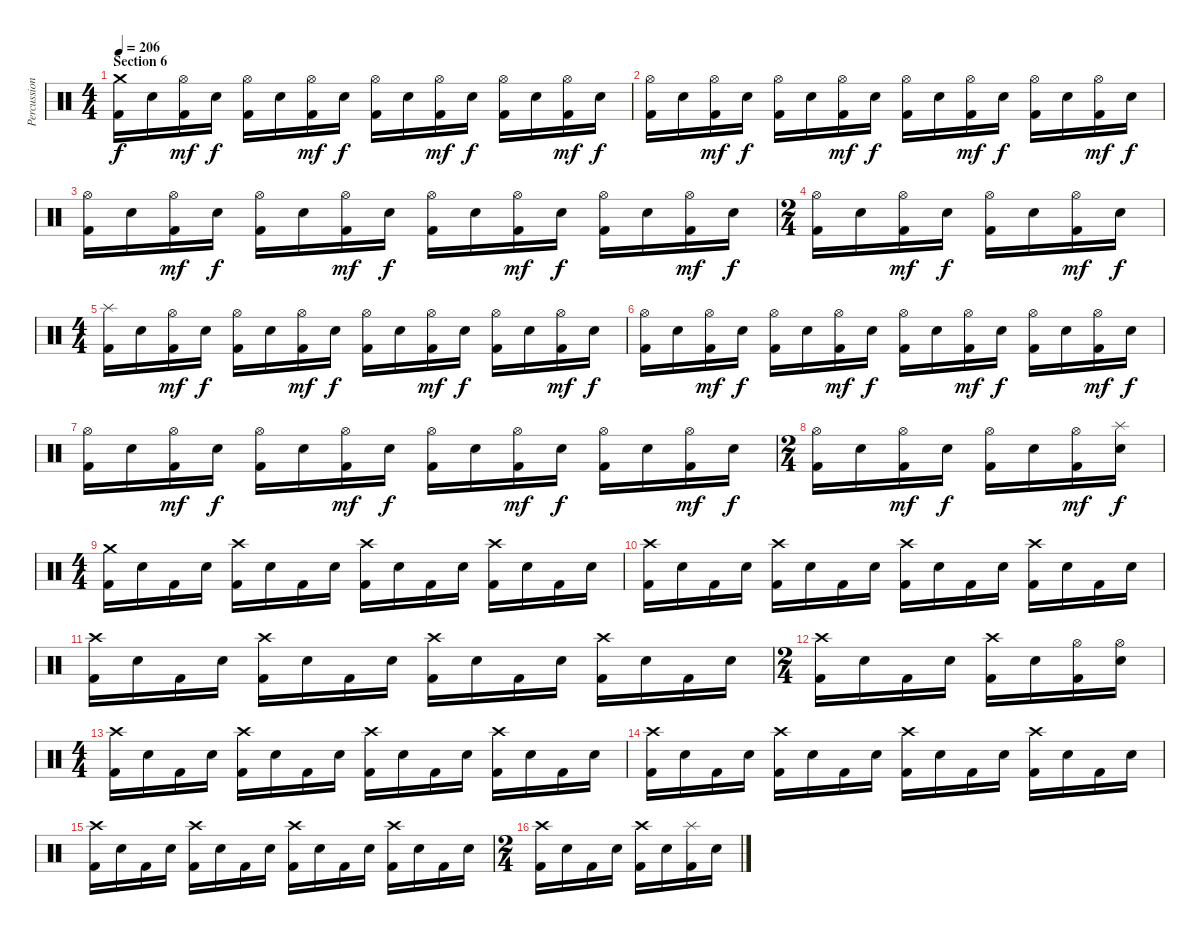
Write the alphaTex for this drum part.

\track ("Percussion" "Percussion") {instrument percussion}
\staff {score}
\articulation defaults
\ts (4 4)
\section ("" "Section 6")
\tempo 206
\clef neutral
\ks c
("Crash medium (hit)" "Kick (hit) 2").16{dy f} "Electric Snare (hit)".16 ("Hi-Hat (open)" "Kick (hit) 2").16{dy mf} "Electric Snare (hit)".16{dy f} ("Hi-Hat (open)" "Kick (hit) 2").16 "Electric Snare (hit)".16 ("Hi-Hat (open)" "Kick (hit) 2").16{dy mf} "Electric Snare (hit)".16{dy f} ("Hi-Hat (open)" "Kick (hit) 2").16 "Electric Snare (hit)".16 ("Hi-Hat (open)" "Kick (hit) 2").16{dy mf} "Electric Snare (hit)".16{dy f} ("Hi-Hat (open)" "Kick (hit) 2").16 "Electric Snare (hit)".16 ("Hi-Hat (open)" "Kick (hit) 2").16{dy mf} "Electric Snare (hit)".16{dy f} |
("Hi-Hat (open)" "Kick (hit) 2").16 "Electric Snare (hit)".16 ("Hi-Hat (open)" "Kick (hit) 2").16{dy mf} "Electric Snare (hit)".16{dy f} ("Hi-Hat (open)" "Kick (hit) 2").16 "Electric Snare (hit)".16 ("Hi-Hat (open)" "Kick (hit) 2").16{dy mf} "Electric Snare (hit)".16{dy f} ("Hi-Hat (open)" "Kick (hit) 2").16 "Electric Snare (hit)".16 ("Hi-Hat (open)" "Kick (hit) 2").16{dy mf} "Electric Snare (hit)".16{dy f} ("Hi-Hat (open)" "Kick (hit) 2").16 "Electric Snare (hit)".16 ("Hi-Hat (open)" "Kick (hit) 2").16{dy mf} "Electric Snare (hit)".16{dy f} |
("Hi-Hat (open)" "Kick (hit) 2").16 "Electric Snare (hit)".16 ("Hi-Hat (open)" "Kick (hit) 2").16{dy mf} "Electric Snare (hit)".16{dy f} ("Hi-Hat (open)" "Kick (hit) 2").16 "Electric Snare (hit)".16 ("Hi-Hat (open)" "Kick (hit) 2").16{dy mf} "Electric Snare (hit)".16{dy f} ("Hi-Hat (open)" "Kick (hit) 2").16 "Electric Snare (hit)".16 ("Hi-Hat (open)" "Kick (hit) 2").16{dy mf} "Electric Snare (hit)".16{dy f} ("Hi-Hat (open)" "Kick (hit) 2").16 "Electric Snare (hit)".16 ("Hi-Hat (open)" "Kick (hit) 2").16{dy mf} "Electric Snare (hit)".16{dy f} |
\ts (2 4)
("Hi-Hat (open)" "Kick (hit) 2").16 "Electric Snare (hit)".16 ("Hi-Hat (open)" "Kick (hit) 2").16{dy mf} "Electric Snare (hit)".16{dy f} ("Hi-Hat (open)" "Kick (hit) 2").16 "Electric Snare (hit)".16 ("Hi-Hat (open)" "Kick (hit) 2").16{dy mf} "Electric Snare (hit)".16{dy f} |
\ts (4 4)
("Splash (hit)" "Kick (hit) 2").16 "Electric Snare (hit)".16 ("Hi-Hat (open)" "Kick (hit) 2").16{dy mf} "Electric Snare (hit)".16{dy f} ("Hi-Hat (open)" "Kick (hit) 2").16 "Electric Snare (hit)".16 ("Hi-Hat (open)" "Kick (hit) 2").16{dy mf} "Electric Snare (hit)".16{dy f} ("Hi-Hat (open)" "Kick (hit) 2").16 "Electric Snare (hit)".16 ("Hi-Hat (open)" "Kick (hit) 2").16{dy mf} "Electric Snare (hit)".16{dy f} ("Hi-Hat (open)" "Kick (hit) 2").16 "Electric Snare (hit)".16 ("Hi-Hat (open)" "Kick (hit) 2").16{dy mf} "Electric Snare (hit)".16{dy f} |
("Hi-Hat (open)" "Kick (hit) 2").16 "Electric Snare (hit)".16 ("Hi-Hat (open)" "Kick (hit) 2").16{dy mf} "Electric Snare (hit)".16{dy f} ("Hi-Hat (open)" "Kick (hit) 2").16 "Electric Snare (hit)".16 ("Hi-Hat (open)" "Kick (hit) 2").16{dy mf} "Electric Snare (hit)".16{dy f} ("Hi-Hat (open)" "Kick (hit) 2").16 "Electric Snare (hit)".16 ("Hi-Hat (open)" "Kick (hit) 2").16{dy mf} "Electric Snare (hit)".16{dy f} ("Hi-Hat (open)" "Kick (hit) 2").16 "Electric Snare (hit)".16 ("Hi-Hat (open)" "Kick (hit) 2").16{dy mf} "Electric Snare (hit)".16{dy f} |
("Hi-Hat (open)" "Kick (hit) 2").16 "Electric Snare (hit)".16 ("Hi-Hat (open)" "Kick (hit) 2").16{dy mf} "Electric Snare (hit)".16{dy f} ("Hi-Hat (open)" "Kick (hit) 2").16 "Electric Snare (hit)".16 ("Hi-Hat (open)" "Kick (hit) 2").16{dy mf} "Electric Snare (hit)".16{dy f} ("Hi-Hat (open)" "Kick (hit) 2").16 "Electric Snare (hit)".16 ("Hi-Hat (open)" "Kick (hit) 2").16{dy mf} "Electric Snare (hit)".16{dy f} ("Hi-Hat (open)" "Kick (hit) 2").16 "Electric Snare (hit)".16 ("Hi-Hat (open)" "Kick (hit) 2").16{dy mf} "Electric Snare (hit)".16{dy f} |
\ts (2 4)
("Hi-Hat (open)" "Kick (hit) 2").16 "Electric Snare (hit)".16 ("Hi-Hat (open)" "Kick (hit) 2").16{dy mf} "Electric Snare (hit)".16{dy f} ("Hi-Hat (open)" "Kick (hit) 2").16 "Electric Snare (hit)".16 ("Hi-Hat (open)" "Kick (hit) 2").16{dy mf} ("Splash (hit)" "Electric Snare (hit)").16{dy f} |
\ts (4 4)
("Crash medium (hit)" "Kick (hit) 2").16 "Electric Snare (hit)".16 "Kick (hit) 2".16 "Electric Snare (hit)".16 ("Crash high (hit)" "Kick (hit) 2").16 "Electric Snare (hit)".16 "Kick (hit) 2".16 "Electric Snare (hit)".16 ("Crash high (hit)" "Kick (hit) 2").16 "Electric Snare (hit)".16 "Kick (hit) 2".16 "Electric Snare (hit)".16 ("Crash high (hit)" "Kick (hit) 2").16 "Electric Snare (hit)".16 "Kick (hit) 2".16 "Electric Snare (hit)".16 |
("Crash high (hit)" "Kick (hit) 2").16 "Electric Snare (hit)".16 "Kick (hit) 2".16 "Electric Snare (hit)".16 ("Crash high (hit)" "Kick (hit) 2").16 "Electric Snare (hit)".16 "Kick (hit) 2".16 "Electric Snare (hit)".16 ("Crash high (hit)" "Kick (hit) 2").16 "Electric Snare (hit)".16 "Kick (hit) 2".16 "Electric Snare (hit)".16 ("Crash high (hit)" "Kick (hit) 2").16 "Electric Snare (hit)".16 "Kick (hit) 2".16 "Electric Snare (hit)".16 |
("Crash high (hit)" "Kick (hit) 2").16 "Electric Snare (hit)".16 "Kick (hit) 2".16 "Electric Snare (hit)".16 ("Crash high (hit)" "Kick (hit) 2").16 "Electric Snare (hit)".16 "Kick (hit) 2".16 "Electric Snare (hit)".16 ("Crash high (hit)" "Kick (hit) 2").16 "Electric Snare (hit)".16 "Kick (hit) 2".16 "Electric Snare (hit)".16 ("Crash high (hit)" "Kick (hit) 2").16 "Electric Snare (hit)".16 "Kick (hit) 2".16 "Electric Snare (hit)".16 |
\ts (2 4)
("Crash high (hit)" "Kick (hit) 2").16 "Electric Snare (hit)".16 "Kick (hit) 2".16 "Electric Snare (hit)".16 ("Crash high (hit)" "Kick (hit) 2").16 "Electric Snare (hit)".16 ("Hi-Hat (open)" "Kick (hit) 2").16 ("Hi-Hat (open)" "Electric Snare (hit)").16 |
\ts (4 4)
("Crash high (hit)" "Kick (hit) 2").16 "Electric Snare (hit)".16 "Kick (hit) 2".16 "Electric Snare (hit)".16 ("Crash high (hit)" "Kick (hit) 2").16 "Electric Snare (hit)".16 "Kick (hit) 2".16 "Electric Snare (hit)".16 ("Crash high (hit)" "Kick (hit) 2").16 "Electric Snare (hit)".16 "Kick (hit) 2".16 "Electric Snare (hit)".16 ("Crash high (hit)" "Kick (hit) 2").16 "Electric Snare (hit)".16 "Kick (hit) 2".16 "Electric Snare (hit)".16 |
("Crash high (hit)" "Kick (hit) 2").16 "Electric Snare (hit)".16 "Kick (hit) 2".16 "Electric Snare (hit)".16 ("Crash high (hit)" "Kick (hit) 2").16 "Electric Snare (hit)".16 "Kick (hit) 2".16 "Electric Snare (hit)".16 ("Crash high (hit)" "Kick (hit) 2").16 "Electric Snare (hit)".16 "Kick (hit) 2".16 "Electric Snare (hit)".16 ("Crash high (hit)" "Kick (hit) 2").16 "Electric Snare (hit)".16 "Kick (hit) 2".16 "Electric Snare (hit)".16 |
("Crash high (hit)" "Kick (hit) 2").16 "Electric Snare (hit)".16 "Kick (hit) 2".16 "Electric Snare (hit)".16 ("Crash high (hit)" "Kick (hit) 2").16 "Electric Snare (hit)".16 "Kick (hit) 2".16 "Electric Snare (hit)".16 ("Crash high (hit)" "Kick (hit) 2").16 "Electric Snare (hit)".16 "Kick (hit) 2".16 "Electric Snare (hit)".16 ("Crash high (hit)" "Kick (hit) 2").16 "Electric Snare (hit)".16 "Kick (hit) 2".16 "Electric Snare (hit)".16 |
\ts (2 4)
("Crash high (hit)" "Kick (hit) 2").16 "Electric Snare (hit)".16 "Kick (hit) 2".16 "Electric Snare (hit)".16 ("Crash high (hit)" "Kick (hit) 2").16 "Electric Snare (hit)".16 ("Splash (hit)" "Kick (hit) 2").16 "Electric Snare (hit)".16
